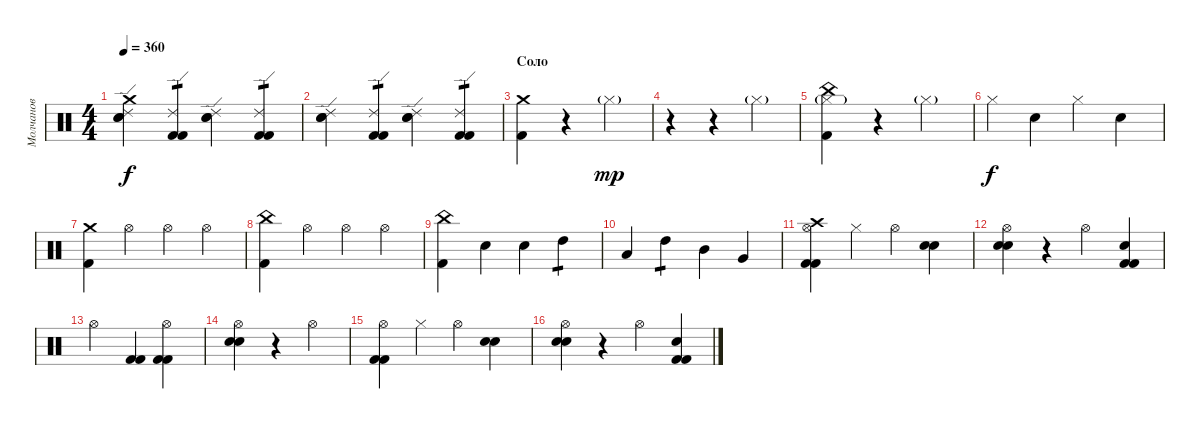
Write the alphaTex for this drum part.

\track ("Молчанов" "Молчанов") {instrument percussion}
\staff {score}
\articulation defaults
\ts (4 4)
\tempo 360
\clef neutral
\ks c
("Ride (edge) 2" "Electric Snare (hit)" "Electric Snare (hit)" "Crash medium (hit)").4{dy f} ("Ride (edge) 2" "Kick (hit) 2" "Kick (hit) 2").4{tp 1} ("Ride (edge) 2" "Electric Snare (hit)" "Electric Snare (hit)").4 ("Ride (edge) 2" "Kick (hit) 2" "Kick (hit) 2").4{tp 1} |
("Ride (edge) 2" "Electric Snare (hit)" "Electric Snare (hit)").4 ("Ride (edge) 2" "Kick (hit) 2" "Kick (hit) 2").4{tp 1} ("Ride (edge) 2" "Electric Snare (hit)" "Electric Snare (hit)").4 ("Ride (edge) 2" "Kick (hit) 2" "Kick (hit) 2").4{tp 1} |
\section ("" "Соло")
("Kick (hit) 2" "Crash medium (hit)").4 r.4 "Hi-Hat (closed)"{g}.4{dy mp} |
r.4 r.4 "Hi-Hat (closed)"{g}.4 |
("China (hit)" "Kick (hit) 2" "Hi-Hat (closed)"{g}).4 r.4 "Hi-Hat (closed)"{g}.4 |
"Hi-Hat (closed)".4{dy f} "Snare (hit)"{x}.4 "Hi-Hat (closed)".4 "Snare (hit)"{x}.4 |
("Kick (hit) 2" "Crash medium (hit)").4 "Hi-Hat (open)".4 "Hi-Hat (open)".4 "Hi-Hat (open)".4 |
("Kick (hit) 2" "China (hit)").4 "Hi-Hat (open)".4 "Hi-Hat (open)".4 "Hi-Hat (open)".4 |
("China (hit)" "Kick (hit) 2").4 "Electric Snare (hit)".4 "Snare (hit)".4 "High Tom (hit)".4{tp 1} |
"Low Tom (hit)".4 "High Tom (hit)".4{tp 1} "Mid Tom (hit)".4 "Very Low Tom (hit)".4 |
("Kick (hit) 2" "Kick (hit) 2" "Hi-Hat (open)" "Crash high (hit)").4 "Hi-Hat (closed)"{x}.4 "Hi-Hat (open)".4 ("Snare (hit)"{x} "Snare (hit)"{x}).4 |
("Electric Snare (hit)" "Electric Snare (hit)" "Hi-Hat (open)").4 r.4 "Hi-Hat (open)".4 ("Kick (hit) 2" "Kick (hit) 2" "Snare (hit)").4 |
"Hi-Hat (open)".4 ("Kick (hit) 2" "Kick (hit) 2").4 ("Kick (hit) 2" "Kick (hit) 2" "Hi-Hat (open)").4 |
("Electric Snare (hit)" "Electric Snare (hit)" "Hi-Hat (open)").4 r.4 "Hi-Hat (open)".4 |
("Kick (hit) 2" "Kick (hit) 2" "Hi-Hat (open)").4 "Hi-Hat (closed)"{x}.4 "Hi-Hat (open)".4 ("Snare (hit)"{x} "Snare (hit)"{x}).4 |
("Electric Snare (hit)" "Electric Snare (hit)" "Hi-Hat (open)").4 r.4 "Hi-Hat (open)".4 ("Kick (hit) 2" "Kick (hit) 2" "Snare (hit)").4
